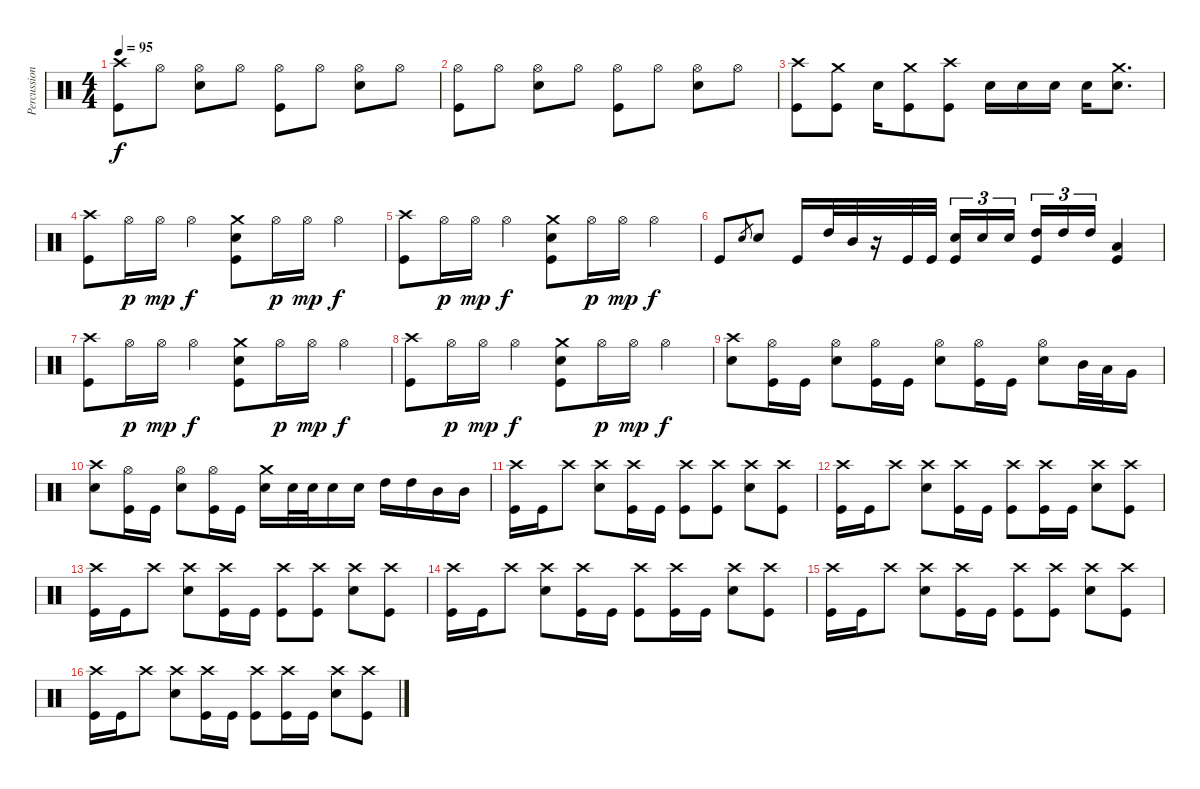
\track ("Percussion" "Percussion") {instrument percussion}
\staff {score}
\articulation defaults
\ts (4 4)
\tempo 95
\clef neutral
\ks c
("Crash high (hit)" "Kick (hit)").8{dy f} "Hi-Hat (open)".8 ("Hi-Hat (open)" "Snare (hit) 2").8 "Hi-Hat (open)".8 ("Hi-Hat (open)" "Kick (hit)").8 "Hi-Hat (open)".8 ("Hi-Hat (open)" "Snare (hit) 2").8 "Hi-Hat (open)".8 |
("Hi-Hat (open)" "Kick (hit)").8 "Hi-Hat (open)".8 ("Hi-Hat (open)" "Snare (hit) 2").8 "Hi-Hat (open)".8 ("Hi-Hat (open)" "Kick (hit)").8 "Hi-Hat (open)".8 ("Hi-Hat (open)" "Snare (hit) 2").8 "Hi-Hat (open)".8 |
("Crash high (hit)" "Kick (hit)").8 ("Crash medium (hit)" "Kick (hit)").8 "Snare (hit) 2".16 ("Crash medium (hit)" "Kick (hit)").8 ("Crash high (hit)" "Kick (hit)").8 "Snare (hit) 2".16 "Snare (hit) 2".16 "Snare (hit) 2".16 "Snare (hit) 2".16 ("Crash medium (hit)" "Snare (hit) 2").8{d} |
("Crash high (hit)" "Kick (hit)").8 "Hi-Hat (open)".16{dy p} "Hi-Hat (open)".16{dy mp} "Hi-Hat (open)".4{dy f} ("Crash medium (hit)" "Snare (hit) 2" "Kick (hit)").8 "Hi-Hat (open)".16{dy p} "Hi-Hat (open)".16{dy mp} "Hi-Hat (open)".4{dy f} |
("Crash high (hit)" "Kick (hit)").8 "Hi-Hat (open)".16{dy p} "Hi-Hat (open)".16{dy mp} "Hi-Hat (open)".4{dy f} ("Crash medium (hit)" "Snare (hit) 2" "Kick (hit)").8 "Hi-Hat (open)".16{dy p} "Hi-Hat (open)".16{dy mp} "Hi-Hat (open)".4{dy f} |
"Kick (hit)".8 "Snare (hit) 2".8{gr} "Snare (hit) 2".8 "Kick (hit)".16 "High Tom (hit)".32 "Mid Tom (hit)".32 r.16 "Kick (hit)".32 "Kick (hit)".32 ("Snare (hit) 2" "Kick (hit)").16{tu (3 2)} "Snare (hit) 2".16{tu (3 2)} "Snare (hit) 2".16{tu (3 2) beam splitsecondary} ("High Tom (hit)" "Kick (hit)").16{tu (3 2)} "High Tom (hit)".16{tu (3 2)} "High Tom (hit)".16{tu (3 2)} ("Low Tom (hit)" "Kick (hit)").4 |
("Crash high (hit)" "Kick (hit)").8 "Hi-Hat (open)".16{dy p} "Hi-Hat (open)".16{dy mp} "Hi-Hat (open)".4{dy f} ("Crash medium (hit)" "Snare (hit) 2" "Kick (hit)").8 "Hi-Hat (open)".16{dy p} "Hi-Hat (open)".16{dy mp} "Hi-Hat (open)".4{dy f} |
("Crash high (hit)" "Kick (hit)").8 "Hi-Hat (open)".16{dy p} "Hi-Hat (open)".16{dy mp} "Hi-Hat (open)".4{dy f} ("Crash medium (hit)" "Snare (hit) 2" "Kick (hit)").8 "Hi-Hat (open)".16{dy p} "Hi-Hat (open)".16{dy mp} "Hi-Hat (open)".4{dy f} |
("Crash high (hit)" "Snare (hit) 2").8 ("Hi-Hat (open)" "Kick (hit)").16 "Kick (hit)".16 ("Hi-Hat (open)" "Snare (hit) 2").8 ("Hi-Hat (open)" "Kick (hit)").16 "Kick (hit)".16 ("Hi-Hat (open)" "Snare (hit) 2").8 ("Hi-Hat (open)" "Kick (hit)").16 "Kick (hit)".16 ("Hi-Hat (open)" "Snare (hit) 2").8 "Mid Tom (hit)".32 "Low Tom (hit)".32 "Very Low Tom (hit)".16 |
("Crash high (hit)" "Snare (hit) 2").8 ("Hi-Hat (open)" "Kick (hit)").16 "Kick (hit)".16 ("Hi-Hat (open)" "Snare (hit) 2").8 ("Hi-Hat (open)" "Kick (hit)").16 "Kick (hit)".16 ("Crash medium (hit)" "Snare (hit) 2").16 "Snare (hit) 2".32 "Snare (hit) 2".32 "Snare (hit) 2".16 "Snare (hit) 2".16 "High Tom (hit)".16 "High Tom (hit)".16 "Mid Tom (hit)".16 "Mid Tom (hit)".16 |
("Crash high (hit)" "Kick (hit)").16 "Kick (hit)".16 "Crash high (hit)".8 ("Crash high (hit)" "Snare (hit) 2").8 ("Crash high (hit)" "Kick (hit)").16 "Kick (hit)".16 ("Crash high (hit)" "Kick (hit)").8 ("Crash high (hit)" "Kick (hit)").8 ("Crash high (hit)" "Snare (hit) 2").8 ("Crash high (hit)" "Kick (hit)").8 |
("Crash high (hit)" "Kick (hit)").16 "Kick (hit)".16 "Crash high (hit)".8 ("Crash high (hit)" "Snare (hit) 2").8 ("Crash high (hit)" "Kick (hit)").16 "Kick (hit)".16 ("Crash high (hit)" "Kick (hit)").8 ("Crash high (hit)" "Kick (hit)").16 "Kick (hit)".16 ("Crash high (hit)" "Snare (hit) 2").8 ("Crash high (hit)" "Kick (hit)").8 |
("Crash high (hit)" "Kick (hit)").16 "Kick (hit)".16 "Crash high (hit)".8 ("Crash high (hit)" "Snare (hit) 2").8 ("Crash high (hit)" "Kick (hit)").16 "Kick (hit)".16 ("Crash high (hit)" "Kick (hit)").8 ("Crash high (hit)" "Kick (hit)").8 ("Crash high (hit)" "Snare (hit) 2").8 ("Crash high (hit)" "Kick (hit)").8 |
("Crash high (hit)" "Kick (hit)").16 "Kick (hit)".16 "Crash high (hit)".8 ("Crash high (hit)" "Snare (hit) 2").8 ("Crash high (hit)" "Kick (hit)").16 "Kick (hit)".16 ("Crash high (hit)" "Kick (hit)").8 ("Crash high (hit)" "Kick (hit)").16 "Kick (hit)".16 ("Crash high (hit)" "Snare (hit) 2").8 ("Crash high (hit)" "Kick (hit)").8 |
("Crash high (hit)" "Kick (hit)").16 "Kick (hit)".16 "Crash high (hit)".8 ("Crash high (hit)" "Snare (hit) 2").8 ("Crash high (hit)" "Kick (hit)").16 "Kick (hit)".16 ("Crash high (hit)" "Kick (hit)").8 ("Crash high (hit)" "Kick (hit)").8 ("Crash high (hit)" "Snare (hit) 2").8 ("Crash high (hit)" "Kick (hit)").8 |
("Crash high (hit)" "Kick (hit)").16 "Kick (hit)".16 "Crash high (hit)".8 ("Crash high (hit)" "Snare (hit) 2").8 ("Crash high (hit)" "Kick (hit)").16 "Kick (hit)".16 ("Crash high (hit)" "Kick (hit)").8 ("Crash high (hit)" "Kick (hit)").16 "Kick (hit)".16 ("Crash high (hit)" "Snare (hit) 2").8 ("Crash high (hit)" "Kick (hit)").8
